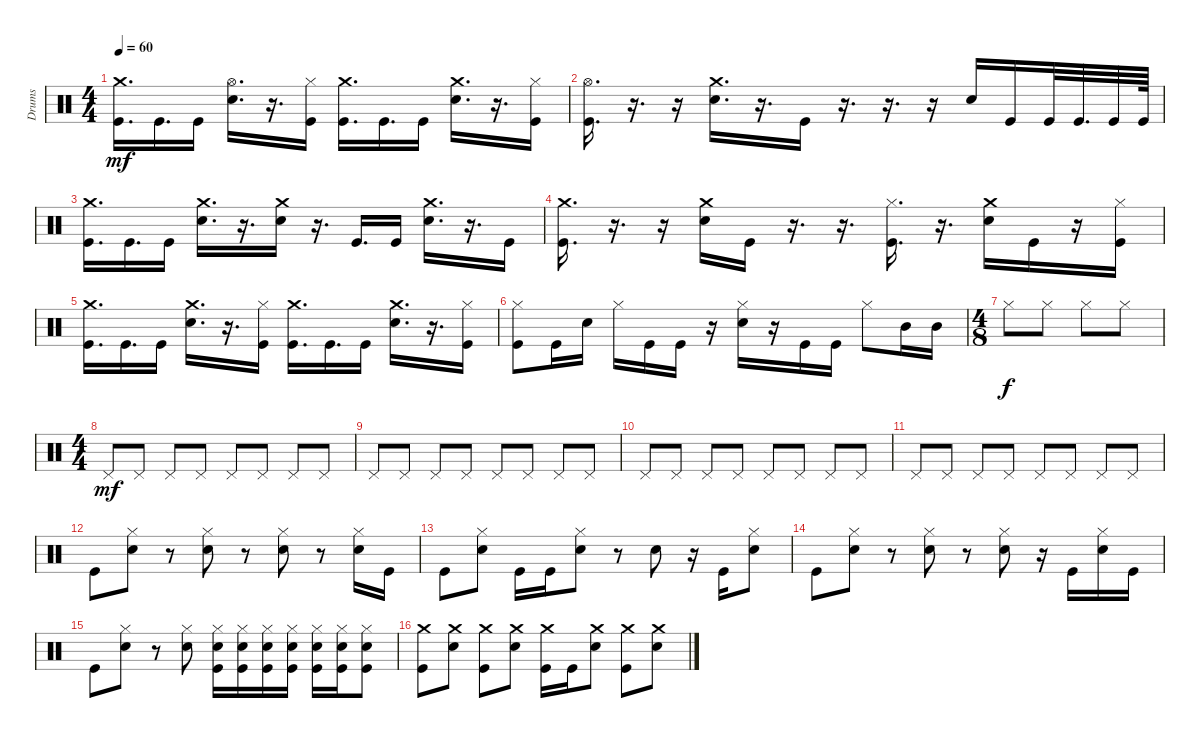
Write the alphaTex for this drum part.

\defaultSystemsLayout 4
\track ("Drums" "Drums") {instrument percussion}
\staff {score}
\articulation defaults
\ts (4 4)
\tempo 60
\clef neutral
\ks c
("Kick (hit)" "Crash medium (hit)").16{d dy mf} "Kick (hit)".16{d} "Kick (hit)".16 ("Snare (hit) 2" "Hi-Hat (open)").16{d} r.16{d} ("Hi-Hat (closed)" "Kick (hit)").16 ("Kick (hit)" "Crash medium (hit)").16{d} "Kick (hit)".16{d} "Kick (hit)".16 ("Snare (hit) 2" "Crash medium (hit)").16{d} r.16{d} ("Hi-Hat (closed)" "Kick (hit)").16 |
("Kick (hit)" "Hi-Hat (open)").16{d} r.16{d} r.16 ("Crash medium (hit)" "Snare (hit) 2").16{d} r.16{d} "Kick (hit)".16 r.16{d} r.16{d} r.16 "Snare (hit) 2".16 "Kick (hit)".16 "Kick (hit)".32 "Kick (hit)".32{d} "Kick (hit)".32 "Kick (hit)".64 |
("Kick (hit)" "Crash medium (hit)").16{d} "Kick (hit)".16{d} "Kick (hit)".16 ("Snare (hit) 2" "Crash medium (hit)").16{d} r.16{d} ("Snare (hit) 2" "Crash medium (hit)").16 r.16{d} "Kick (hit)".16{d} "Kick (hit)".16 ("Snare (hit) 2" "Crash medium (hit)").16{d} r.16{d} "Kick (hit)".16 |
("Crash medium (hit)" "Kick (hit)").16{d} r.16{d} r.16 ("Snare (hit) 2" "Crash medium (hit)").16 "Kick (hit)".16 r.16{d} r.16{d} ("Kick (hit)" "Hi-Hat (closed)").16{d} r.16{d} ("Crash medium (hit)" "Snare (hit) 2").16 "Kick (hit)".16 r.16 ("Kick (hit)" "Hi-Hat (closed)").16 |
("Kick (hit)" "Crash medium (hit)").16{d} "Kick (hit)".16{d} "Kick (hit)".16 ("Snare (hit) 2" "Crash medium (hit)").16{d} r.16{d} ("Hi-Hat (closed)" "Kick (hit)").16 ("Kick (hit)" "Crash medium (hit)").16{d} "Kick (hit)".16{d} "Kick (hit)".16 ("Snare (hit) 2" "Crash medium (hit)").16{d} r.16{d} ("Hi-Hat (closed)" "Kick (hit)").16 |
("Kick (hit)" "Hi-Hat (closed)").8 "Kick (hit)".16 "Snare (hit) 2".16 "Hi-Hat (closed)".16 "Kick (hit)".16 "Kick (hit)".16 r.16 ("Snare (hit) 2" "Hi-Hat (closed)").16 r.16 "Kick (hit)".16 "Kick (hit)".16 "Hi-Hat (closed)".8 "Mid Tom (hit)".16 "Mid Tom (hit)".16 |
\ts (4 8)
"Hi-Hat (closed)".8{dy f} "Hi-Hat (closed)".8 "Hi-Hat (closed)".8 "Hi-Hat (closed)".8 |
\ts (4 4)
"Pedal Hi-Hat (hit)".8{dy mf} "Pedal Hi-Hat (hit)".8 "Pedal Hi-Hat (hit)".8 "Pedal Hi-Hat (hit)".8 "Pedal Hi-Hat (hit)".8 "Pedal Hi-Hat (hit)".8 "Pedal Hi-Hat (hit)".8 "Pedal Hi-Hat (hit)".8 |
"Pedal Hi-Hat (hit)".8 "Pedal Hi-Hat (hit)".8 "Pedal Hi-Hat (hit)".8 "Pedal Hi-Hat (hit)".8 "Pedal Hi-Hat (hit)".8 "Pedal Hi-Hat (hit)".8 "Pedal Hi-Hat (hit)".8 "Pedal Hi-Hat (hit)".8 |
"Pedal Hi-Hat (hit)".8 "Pedal Hi-Hat (hit)".8 "Pedal Hi-Hat (hit)".8 "Pedal Hi-Hat (hit)".8 "Pedal Hi-Hat (hit)".8 "Pedal Hi-Hat (hit)".8 "Pedal Hi-Hat (hit)".8 "Pedal Hi-Hat (hit)".8 |
"Pedal Hi-Hat (hit)".8 "Pedal Hi-Hat (hit)".8 "Pedal Hi-Hat (hit)".8 "Pedal Hi-Hat (hit)".8 "Pedal Hi-Hat (hit)".8 "Pedal Hi-Hat (hit)".8 "Pedal Hi-Hat (hit)".8 "Pedal Hi-Hat (hit)".8 |
"Kick (hit)".8 ("Snare (hit) 2" "Hi-Hat (closed)").8 r.8 ("Hi-Hat (closed)" "Snare (hit) 2").8 r.8 ("Snare (hit) 2" "Hi-Hat (closed)").8 r.8 ("Hi-Hat (closed)" "Snare (hit) 2").16 "Kick (hit)".16 |
"Kick (hit)".8 ("Snare (hit) 2" "Hi-Hat (closed)").8 "Kick (hit)".16 "Kick (hit)".16 ("Snare (hit) 2" "Hi-Hat (closed)").8 r.8 "Snare (hit) 2".8 r.16 "Kick (hit)".16 ("Snare (hit) 2" "Hi-Hat (closed)").8 |
"Kick (hit)".8 ("Snare (hit) 2" "Hi-Hat (closed)").8 r.8 ("Hi-Hat (closed)" "Snare (hit) 2").8 r.8 ("Snare (hit) 2" "Hi-Hat (closed)").8 r.16 "Kick (hit)".16 ("Hi-Hat (closed)" "Snare (hit) 2").16 "Kick (hit)".16 |
"Kick (hit)".8 ("Snare (hit) 2" "Hi-Hat (closed)").8 r.8 ("Hi-Hat (closed)" "Snare (hit) 2").8 ("Snare (hit) 2" "Hi-Hat (closed)" "Kick (hit)").16 ("Snare (hit) 2" "Hi-Hat (closed)" "Kick (hit)").16 ("Snare (hit) 2" "Hi-Hat (closed)" "Kick (hit)").16 ("Snare (hit) 2" "Hi-Hat (closed)" "Kick (hit)").16 ("Snare (hit) 2" "Hi-Hat (closed)" "Kick (hit)").16 ("Snare (hit) 2" "Hi-Hat (closed)" "Kick (hit)").16 ("Snare (hit) 2" "Kick (hit)" "Hi-Hat (closed)").8 |
("Kick (hit)" "Crash medium (hit)").8 ("Snare (hit) 2" "Crash medium (hit)").8 ("Crash medium (hit)" "Kick (hit)").8 ("Crash medium (hit)" "Snare (hit) 2").8 ("Crash medium (hit)" "Kick (hit)").16 "Kick (hit)".16 ("Snare (hit) 2" "Crash medium (hit)").8 ("Kick (hit)" "Crash medium (hit)").8 ("Snare (hit) 2" "Crash medium (hit)").8
